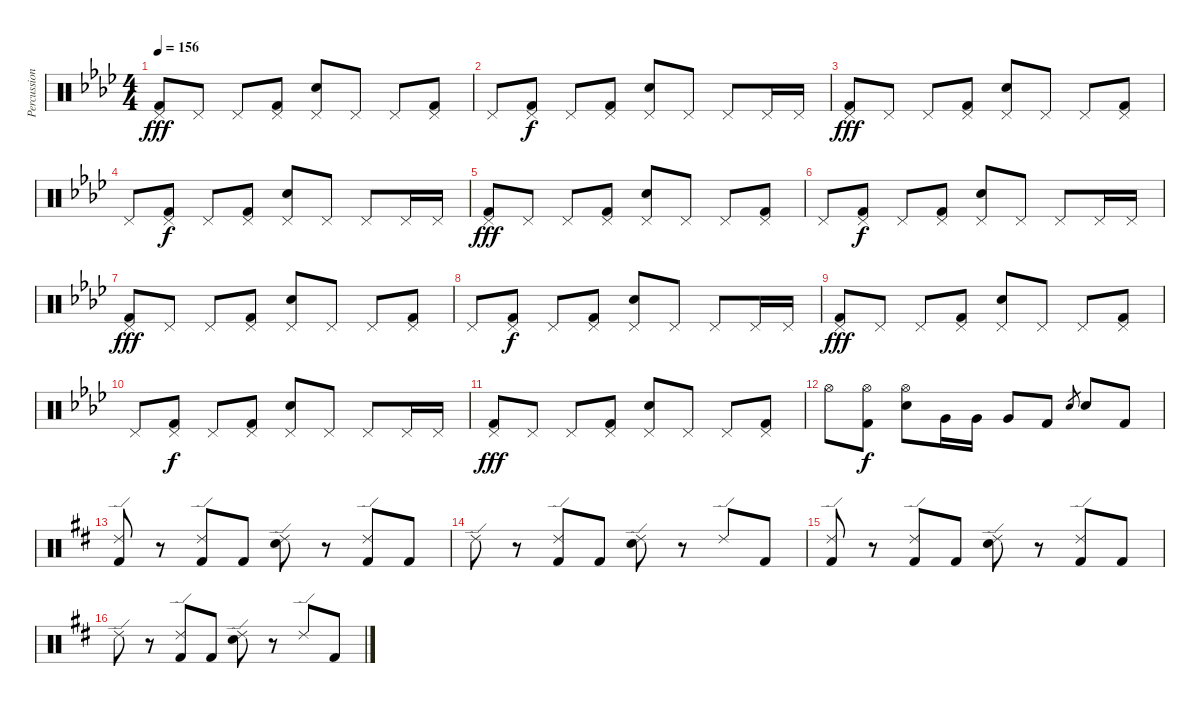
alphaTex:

\track ("Percussion" "Percussion") {instrument percussion}
\staff {score}
\articulation defaults
\ts (4 4)
\tempo 156
\clef neutral
\ks ab
("Pedal Hi-Hat (hit)" "Kick (hit) 2").8{dy fff} "Pedal Hi-Hat (hit)".8 "Pedal Hi-Hat (hit)".8 ("Pedal Hi-Hat (hit)" "Kick (hit) 2").8 ("Pedal Hi-Hat (hit)" "Electric Snare (hit)").8 "Pedal Hi-Hat (hit)".8 "Pedal Hi-Hat (hit)".8 ("Pedal Hi-Hat (hit)" "Kick (hit) 2").8 |
"Pedal Hi-Hat (hit)".8 ("Pedal Hi-Hat (hit)" "Kick (hit) 2").8{dy f} "Pedal Hi-Hat (hit)".8 ("Pedal Hi-Hat (hit)" "Kick (hit) 2").8 ("Pedal Hi-Hat (hit)" "Electric Snare (hit)").8 "Pedal Hi-Hat (hit)".8 "Pedal Hi-Hat (hit)".8 "Pedal Hi-Hat (hit)".16 "Pedal Hi-Hat (hit)".16 |
("Pedal Hi-Hat (hit)" "Kick (hit) 2").8{dy fff} "Pedal Hi-Hat (hit)".8 "Pedal Hi-Hat (hit)".8 ("Pedal Hi-Hat (hit)" "Kick (hit) 2").8 ("Pedal Hi-Hat (hit)" "Electric Snare (hit)").8 "Pedal Hi-Hat (hit)".8 "Pedal Hi-Hat (hit)".8 ("Pedal Hi-Hat (hit)" "Kick (hit) 2").8 |
"Pedal Hi-Hat (hit)".8 ("Pedal Hi-Hat (hit)" "Kick (hit) 2").8{dy f} "Pedal Hi-Hat (hit)".8 ("Pedal Hi-Hat (hit)" "Kick (hit) 2").8 ("Pedal Hi-Hat (hit)" "Electric Snare (hit)").8 "Pedal Hi-Hat (hit)".8 "Pedal Hi-Hat (hit)".8 "Pedal Hi-Hat (hit)".16 "Pedal Hi-Hat (hit)".16 |
("Pedal Hi-Hat (hit)" "Kick (hit) 2").8{dy fff} "Pedal Hi-Hat (hit)".8 "Pedal Hi-Hat (hit)".8 ("Pedal Hi-Hat (hit)" "Kick (hit) 2").8 ("Pedal Hi-Hat (hit)" "Electric Snare (hit)").8 "Pedal Hi-Hat (hit)".8 "Pedal Hi-Hat (hit)".8 ("Pedal Hi-Hat (hit)" "Kick (hit) 2").8 |
"Pedal Hi-Hat (hit)".8 ("Pedal Hi-Hat (hit)" "Kick (hit) 2").8{dy f} "Pedal Hi-Hat (hit)".8 ("Pedal Hi-Hat (hit)" "Kick (hit) 2").8 ("Pedal Hi-Hat (hit)" "Electric Snare (hit)").8 "Pedal Hi-Hat (hit)".8 "Pedal Hi-Hat (hit)".8 "Pedal Hi-Hat (hit)".16 "Pedal Hi-Hat (hit)".16 |
("Pedal Hi-Hat (hit)" "Kick (hit) 2").8{dy fff} "Pedal Hi-Hat (hit)".8 "Pedal Hi-Hat (hit)".8 ("Pedal Hi-Hat (hit)" "Kick (hit) 2").8 ("Pedal Hi-Hat (hit)" "Electric Snare (hit)").8 "Pedal Hi-Hat (hit)".8 "Pedal Hi-Hat (hit)".8 ("Pedal Hi-Hat (hit)" "Kick (hit) 2").8 |
"Pedal Hi-Hat (hit)".8 ("Pedal Hi-Hat (hit)" "Kick (hit) 2").8{dy f} "Pedal Hi-Hat (hit)".8 ("Pedal Hi-Hat (hit)" "Kick (hit) 2").8 ("Pedal Hi-Hat (hit)" "Electric Snare (hit)").8 "Pedal Hi-Hat (hit)".8 "Pedal Hi-Hat (hit)".8 "Pedal Hi-Hat (hit)".16 "Pedal Hi-Hat (hit)".16 |
("Pedal Hi-Hat (hit)" "Kick (hit) 2").8{dy fff} "Pedal Hi-Hat (hit)".8 "Pedal Hi-Hat (hit)".8 ("Pedal Hi-Hat (hit)" "Kick (hit) 2").8 ("Pedal Hi-Hat (hit)" "Electric Snare (hit)").8 "Pedal Hi-Hat (hit)".8 "Pedal Hi-Hat (hit)".8 ("Pedal Hi-Hat (hit)" "Kick (hit) 2").8 |
"Pedal Hi-Hat (hit)".8 ("Pedal Hi-Hat (hit)" "Kick (hit) 2").8{dy f} "Pedal Hi-Hat (hit)".8 ("Pedal Hi-Hat (hit)" "Kick (hit) 2").8 ("Pedal Hi-Hat (hit)" "Electric Snare (hit)").8 "Pedal Hi-Hat (hit)".8 "Pedal Hi-Hat (hit)".8 "Pedal Hi-Hat (hit)".16 "Pedal Hi-Hat (hit)".16 |
("Pedal Hi-Hat (hit)" "Kick (hit) 2").8{dy fff} "Pedal Hi-Hat (hit)".8 "Pedal Hi-Hat (hit)".8 ("Pedal Hi-Hat (hit)" "Kick (hit) 2").8 ("Pedal Hi-Hat (hit)" "Electric Snare (hit)").8 "Pedal Hi-Hat (hit)".8 "Pedal Hi-Hat (hit)".8 ("Pedal Hi-Hat (hit)" "Kick (hit) 2").8 |
"Hi-Hat (open)".8 ("Hi-Hat (open)" "Kick (hit) 2").8{dy f} ("Hi-Hat (open)" "Electric Snare (hit)").8 "Very Low Tom (hit)".16 "Very Low Tom (hit)".16 "Very Low Tom (hit)".8 "Kick (hit) 2".8 "Electric Snare (hit)".8{gr} "Electric Snare (hit)".8 "Kick (hit) 2".8 |
\ks d
("Ride (edge) 2" "Kick (hit) 2").8 r.8 ("Ride (edge) 2" "Kick (hit) 2").8 "Kick (hit) 2".8 ("Ride (edge) 2" "Electric Snare (hit)").8 r.8 ("Ride (edge) 2" "Kick (hit) 2").8 "Kick (hit) 2".8 |
"Ride (edge) 2".8 r.8 ("Ride (edge) 2" "Kick (hit) 2").8 "Kick (hit) 2".8 ("Ride (edge) 2" "Electric Snare (hit)").8 r.8 "Ride (edge) 2".8 "Kick (hit) 2".8 |
("Ride (edge) 2" "Kick (hit) 2").8 r.8 ("Ride (edge) 2" "Kick (hit) 2").8 "Kick (hit) 2".8 ("Ride (edge) 2" "Electric Snare (hit)").8 r.8 ("Ride (edge) 2" "Kick (hit) 2").8 "Kick (hit) 2".8 |
"Ride (edge) 2".8 r.8 ("Ride (edge) 2" "Kick (hit) 2").8 "Kick (hit) 2".8 ("Ride (edge) 2" "Electric Snare (hit)").8 r.8 "Ride (edge) 2".8 "Kick (hit) 2".8
